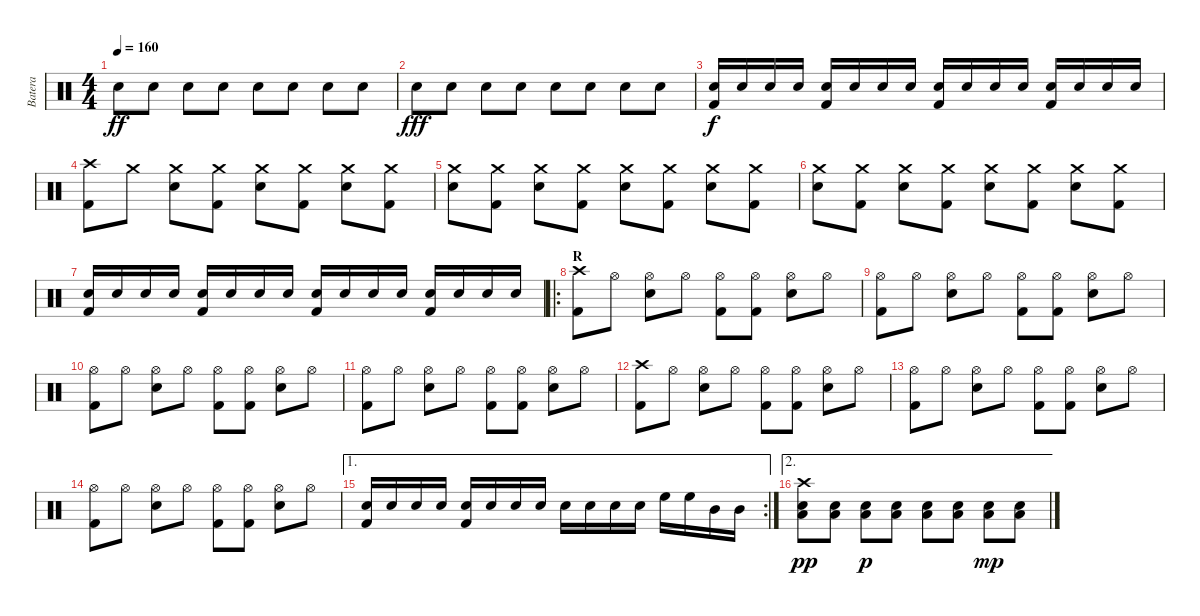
\track ("Batera" "Batera") {instrument percussion}
\staff {score}
\articulation defaults
\ts (4 4)
\tempo 160
\clef neutral
\ks c "Electric Snare (hit)".8{dy ff} "Electric Snare (hit)".8 "Electric Snare (hit)".8 "Electric Snare (hit)".8 "Electric Snare (hit)".8 "Electric Snare (hit)".8 "Electric Snare (hit)".8 "Electric Snare (hit)".8
|
"Electric Snare (hit)".8{dy fff} "Electric Snare (hit)".8 "Electric Snare (hit)".8 "Electric Snare (hit)".8 "Electric Snare (hit)".8 "Electric Snare (hit)".8 "Electric Snare (hit)".8 "Electric Snare (hit)".8 |
("Electric Snare (hit)" "Kick (hit) 2").16{dy f} "Electric Snare (hit)".16 "Electric Snare (hit)".16 "Electric Snare (hit)".16 ("Electric Snare (hit)" "Kick (hit) 2").16 "Electric Snare (hit)".16 "Electric Snare (hit)".16 "Electric Snare (hit)".16 ("Electric Snare (hit)" "Kick (hit) 2").16 "Electric Snare (hit)".16 "Electric Snare (hit)".16 "Electric Snare (hit)".16 ("Electric Snare (hit)" "Kick (hit) 2").16 "Electric Snare (hit)".16 "Electric Snare (hit)".16 "Electric Snare (hit)".16 |
("Crash high (hit)" "Kick (hit) 2").8 "Crash medium (hit)".8 ("Crash medium (hit)" "Electric Snare (hit)").8 ("Crash medium (hit)" "Kick (hit) 2").8 ("Crash medium (hit)" "Electric Snare (hit)").8 ("Crash medium (hit)" "Kick (hit) 2").8 ("Crash medium (hit)" "Electric Snare (hit)").8 ("Crash medium (hit)" "Kick (hit) 2").8 |
("Crash medium (hit)" "Electric Snare (hit)").8 ("Crash medium (hit)" "Kick (hit) 2").8 ("Crash medium (hit)" "Electric Snare (hit)").8 ("Crash medium (hit)" "Kick (hit) 2").8 ("Crash medium (hit)" "Electric Snare (hit)").8 ("Crash medium (hit)" "Kick (hit) 2").8 ("Crash medium (hit)" "Electric Snare (hit)").8 ("Crash medium (hit)" "Kick (hit) 2").8 |
("Crash medium (hit)" "Electric Snare (hit)").8 ("Crash medium (hit)" "Kick (hit) 2").8 ("Crash medium (hit)" "Electric Snare (hit)").8 ("Crash medium (hit)" "Kick (hit) 2").8 ("Crash medium (hit)" "Electric Snare (hit)").8 ("Crash medium (hit)" "Kick (hit) 2").8 ("Crash medium (hit)" "Electric Snare (hit)").8 ("Crash medium (hit)" "Kick (hit) 2").8 |
("Electric Snare (hit)" "Kick (hit) 2").16 "Electric Snare (hit)".16 "Electric Snare (hit)".16 "Electric Snare (hit)".16 ("Electric Snare (hit)" "Kick (hit) 2").16 "Electric Snare (hit)".16 "Electric Snare (hit)".16 "Electric Snare (hit)".16 ("Electric Snare (hit)" "Kick (hit) 2").16 "Electric Snare (hit)".16 "Electric Snare (hit)".16 "Electric Snare (hit)".16 ("Electric Snare (hit)" "Kick (hit) 2").16 "Electric Snare (hit)".16 "Electric Snare (hit)".16 "Electric Snare (hit)".16 |
\ro
\section ("" "R")
("Crash high (hit)" "Kick (hit) 2").8 "Hi-Hat (open)".8 ("Hi-Hat (open)" "Electric Snare (hit)").8 "Hi-Hat (open)".8 ("Hi-Hat (open)" "Kick (hit) 2").8 ("Hi-Hat (open)" "Kick (hit) 2").8 ("Hi-Hat (open)" "Electric Snare (hit)").8 "Hi-Hat (open)".8 |
("Hi-Hat (open)" "Kick (hit) 2").8 "Hi-Hat (open)".8 ("Hi-Hat (open)" "Electric Snare (hit)").8 "Hi-Hat (open)".8 ("Hi-Hat (open)" "Kick (hit) 2").8 ("Hi-Hat (open)" "Kick (hit) 2").8 ("Hi-Hat (open)" "Electric Snare (hit)").8 "Hi-Hat (open)".8 |
("Hi-Hat (open)" "Kick (hit) 2").8 "Hi-Hat (open)".8 ("Hi-Hat (open)" "Electric Snare (hit)").8 "Hi-Hat (open)".8 ("Hi-Hat (open)" "Kick (hit) 2").8 ("Hi-Hat (open)" "Kick (hit) 2").8 ("Hi-Hat (open)" "Electric Snare (hit)").8 "Hi-Hat (open)".8 |
("Hi-Hat (open)" "Kick (hit) 2").8 "Hi-Hat (open)".8 ("Hi-Hat (open)" "Electric Snare (hit)").8 "Hi-Hat (open)".8 ("Hi-Hat (open)" "Kick (hit) 2").8 ("Hi-Hat (open)" "Kick (hit) 2").8 ("Hi-Hat (open)" "Electric Snare (hit)").8 "Hi-Hat (open)".8 |
("Crash high (hit)" "Kick (hit) 2").8 "Hi-Hat (open)".8 ("Hi-Hat (open)" "Electric Snare (hit)").8 "Hi-Hat (open)".8 ("Hi-Hat (open)" "Kick (hit) 2").8 ("Hi-Hat (open)" "Kick (hit) 2").8 ("Hi-Hat (open)" "Electric Snare (hit)").8 "Hi-Hat (open)".8 |
("Hi-Hat (open)" "Kick (hit) 2").8 "Hi-Hat (open)".8 ("Hi-Hat (open)" "Electric Snare (hit)").8 "Hi-Hat (open)".8 ("Hi-Hat (open)" "Kick (hit) 2").8 ("Hi-Hat (open)" "Kick (hit) 2").8 ("Hi-Hat (open)" "Electric Snare (hit)").8 "Hi-Hat (open)".8 |
("Hi-Hat (open)" "Kick (hit) 2").8 "Hi-Hat (open)".8 ("Hi-Hat (open)" "Electric Snare (hit)").8 "Hi-Hat (open)".8 ("Hi-Hat (open)" "Kick (hit) 2").8 ("Hi-Hat (open)" "Kick (hit) 2").8 ("Hi-Hat (open)" "Electric Snare (hit)").8 "Hi-Hat (open)".8 |
\ae 1
\rc 2
("Electric Snare (hit)" "Kick (hit) 2").16 "Electric Snare (hit)".16 "Electric Snare (hit)".16 "Electric Snare (hit)".16 ("Electric Snare (hit)" "Kick (hit) 2").16 "Electric Snare (hit)".16 "Electric Snare (hit)".16 "Electric Snare (hit)".16 "Electric Snare (hit)".16 "Electric Snare (hit)".16 "Electric Snare (hit)".16 "Electric Snare (hit)".16 "High Floor Tom (hit)".16 "High Floor Tom (hit)".16 "Mid Tom (hit)".16 "Mid Tom (hit)".16 |
\ae 2
("Crash high (hit)" "Electric Snare (hit)" "Low Tom (hit)").8{dy pp} ("Electric Snare (hit)" "Low Tom (hit)").8 ("Electric Snare (hit)" "Low Tom (hit)").8{dy p} ("Electric Snare (hit)" "Low Tom (hit)").8 ("Electric Snare (hit)" "Low Tom (hit)").8 ("Electric Snare (hit)" "Low Tom (hit)").8 ("Electric Snare (hit)" "Low Tom (hit)").8{dy mp} ("Electric Snare (hit)" "Low Tom (hit)").8
